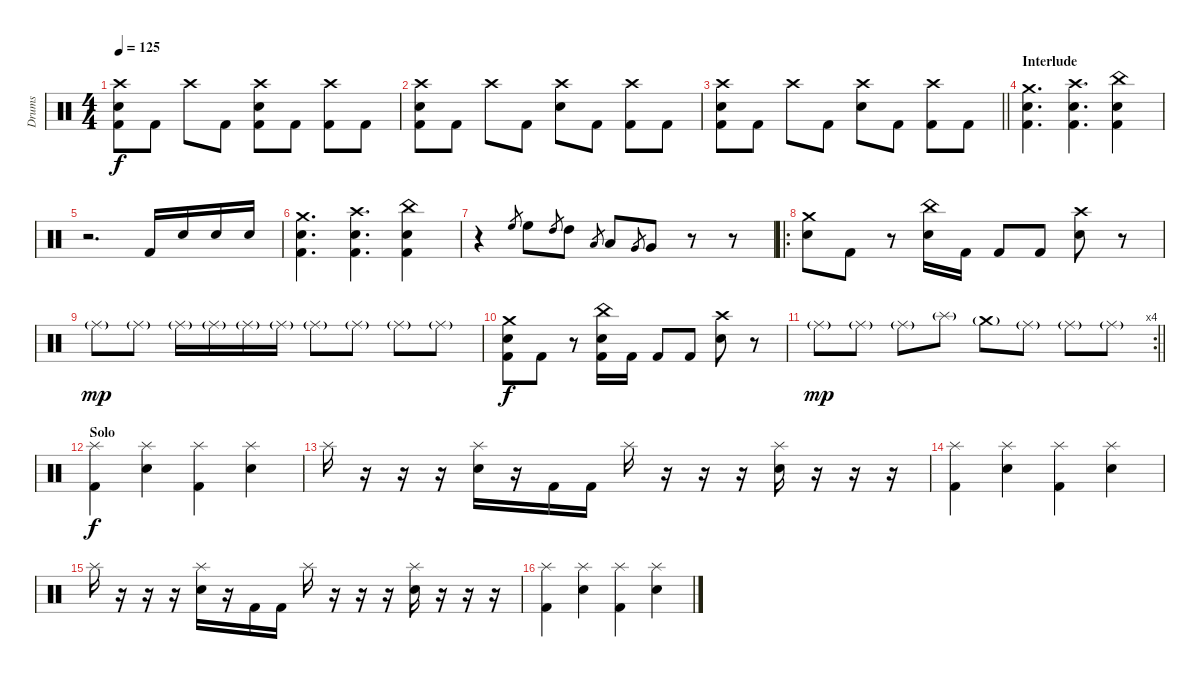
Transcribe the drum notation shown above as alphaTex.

\track ("Drums" "Drums") {instrument percussion}
\staff {score}
\articulation defaults
\ts (4 4)
\tempo 125
\clef neutral
\ks c
("Crash high (hit)" "Electric Snare (hit)" "Kick (hit) 2").8{dy f} "Kick (hit) 2".8 "Crash high (hit)".8 "Kick (hit) 2".8 ("Crash high (hit)" "Electric Snare (hit)" "Kick (hit) 2").8 "Kick (hit) 2".8 ("Crash high (hit)" "Kick (hit) 2").8 "Kick (hit) 2".8 |
("Crash high (hit)" "Electric Snare (hit)" "Kick (hit) 2").8 "Kick (hit) 2".8 "Crash high (hit)".8 "Kick (hit) 2".8 ("Crash high (hit)" "Electric Snare (hit)").8 "Kick (hit) 2".8 ("Crash high (hit)" "Kick (hit) 2").8 "Kick (hit) 2".8 |
\barLineRight lightlight
("Crash high (hit)" "Electric Snare (hit)" "Kick (hit) 2").8 "Kick (hit) 2".8 "Crash high (hit)".8 "Kick (hit) 2".8 ("Crash high (hit)" "Electric Snare (hit)").8 "Kick (hit) 2".8 ("Crash high (hit)" "Kick (hit) 2").8 "Kick (hit) 2".8 |
\section ("" "Interlude")
("Crash medium (hit)" "Electric Snare (hit)" "Kick (hit) 2").4{d} ("Crash high (hit)" "Electric Snare (hit)" "Kick (hit) 2").4{d} ("China (hit)" "Electric Snare (hit)" "Kick (hit) 2").4 |
r.2{d} "Kick (hit) 2".16 "Electric Snare (hit)".16 "Electric Snare (hit)".16 "Electric Snare (hit)".16 |
("Crash medium (hit)" "Electric Snare (hit)" "Kick (hit) 2").4{d} ("Crash high (hit)" "Electric Snare (hit)" "Kick (hit) 2").4{d} ("China (hit)" "Electric Snare (hit)" "Kick (hit) 2").4 |
r.4 "High Floor Tom (hit)".8{gr} "High Floor Tom (hit)".8 "High Tom (hit)".8{gr} "High Tom (hit)".8 "Low Tom (hit)".8{gr} "Low Tom (hit)".8 "Very Low Tom (hit)".8{gr} "Very Low Tom (hit)".8 r.8 r.8 |
\ro
("Crash medium (hit)" "Electric Snare (hit)").8 "Kick (hit) 2".8 r.8 ("China (hit)" "Electric Snare (hit)").16 "Kick (hit) 2".16 "Kick (hit) 2".8 "Kick (hit) 2".8 ("Crash high (hit)" "Electric Snare (hit)").8 r.8 |
"Ride (middle)"{g}.8{dy mp} "Ride (middle)"{g}.8 "Ride (middle)"{g}.16 "Ride (middle)"{g}.16 "Ride (middle)"{g}.16 "Ride (middle)"{g}.16 "Ride (middle)"{g}.8 "Ride (middle)"{g}.8 "Ride (middle)"{g}.8 "Ride (middle)"{g}.8 |
("Crash medium (hit)" "Electric Snare (hit)" "Kick (hit) 2").8{dy f} "Kick (hit) 2".8 r.8 ("China (hit)" "Electric Snare (hit)" "Kick (hit) 2").16 "Kick (hit) 2".16 "Kick (hit) 2".8 "Kick (hit) 2".8 ("Crash high (hit)" "Electric Snare (hit)").8 r.8 |
\rc 4
\barLineRight lightlight "Ride (middle)"{g}.8{dy mp} "Ride (middle)"{g}.8 "Ride (middle)"{g}.8 "Splash (hit)"{g}.8 "Crash medium (hit)"{g}.8 "Ride (middle)"{g}.8 "Ride (middle)"{g}.8 "Ride (middle)"{g}.8
|
\section ("" "Solo")
("Splash (hit)" "Kick (hit) 2").4{dy f} ("Splash (hit)" "Electric Snare (hit)").4 ("Splash (hit)" "Kick (hit) 2").4 ("Splash (hit)" "Electric Snare (hit)").4 |
"Splash (hit)".16 r.16 r.16 r.16 ("Splash (hit)" "Electric Snare (hit)").16 r.16 "Kick (hit) 2".16 "Kick (hit) 2".16 "Splash (hit)".16 r.16 r.16 r.16 ("Splash (hit)" "Electric Snare (hit)").16 r.16 r.16 r.16 |
("Splash (hit)" "Kick (hit) 2").4 ("Splash (hit)" "Electric Snare (hit)").4 ("Splash (hit)" "Kick (hit) 2").4 ("Splash (hit)" "Electric Snare (hit)").4 |
"Splash (hit)".16 r.16 r.16 r.16 ("Splash (hit)" "Electric Snare (hit)").16 r.16 "Kick (hit) 2".16 "Kick (hit) 2".16 "Splash (hit)".16 r.16 r.16 r.16 ("Splash (hit)" "Electric Snare (hit)").16 r.16 r.16 r.16 |
("Splash (hit)" "Kick (hit) 2").4 ("Splash (hit)" "Electric Snare (hit)").4 ("Splash (hit)" "Kick (hit) 2").4 ("Splash (hit)" "Electric Snare (hit)").4
